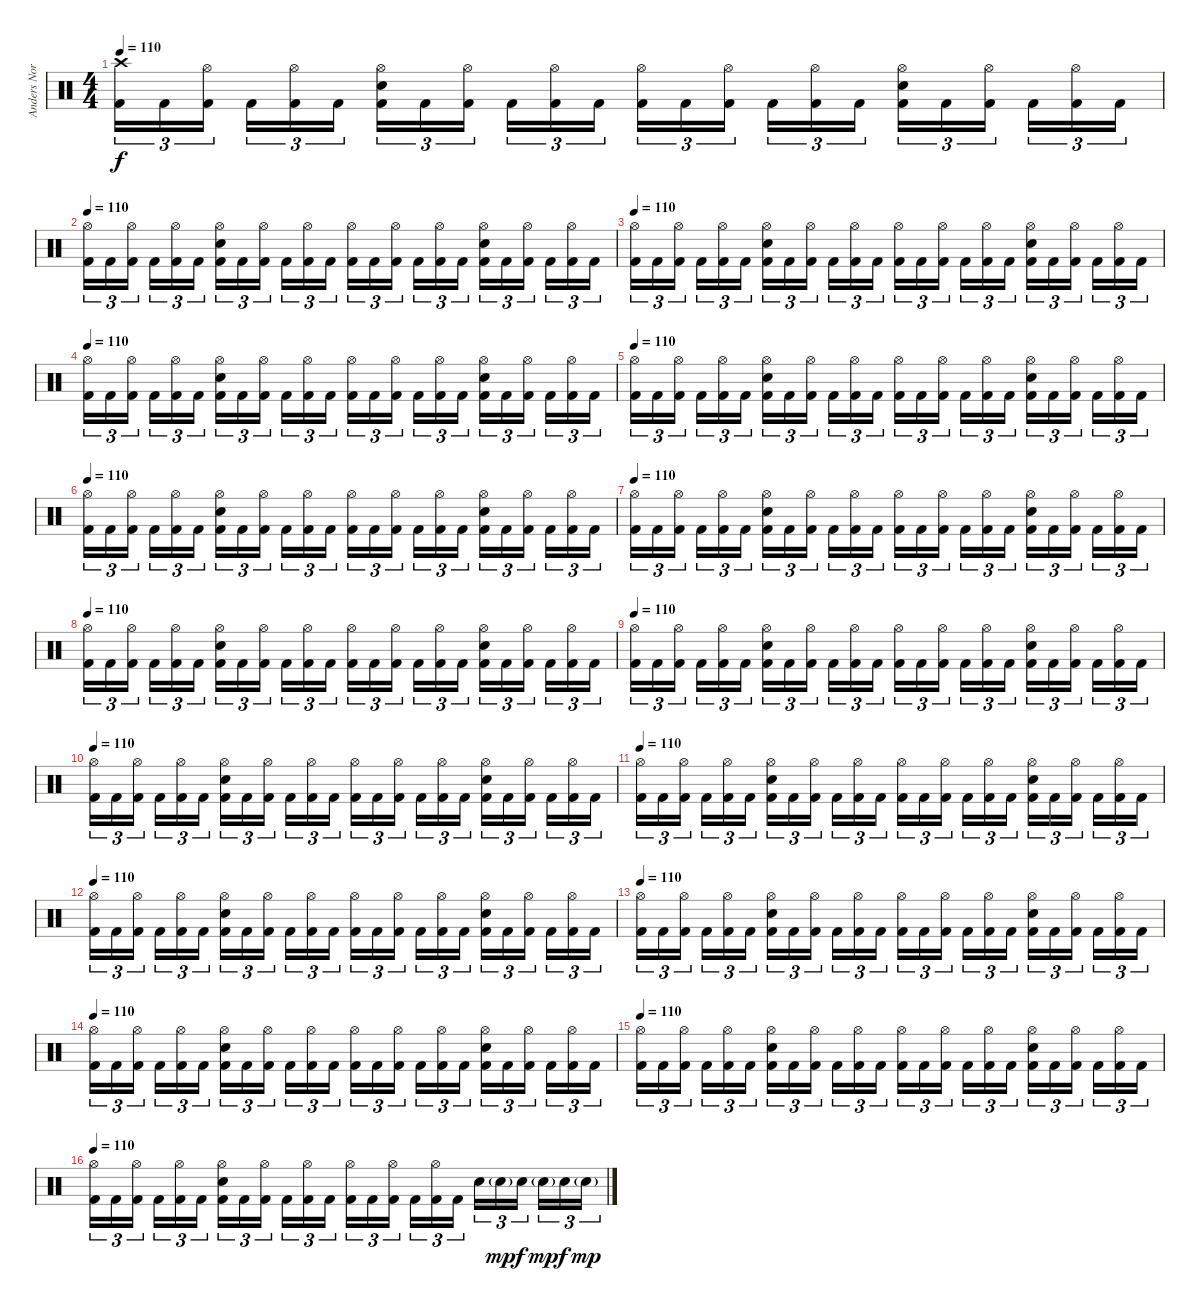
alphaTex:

\track ("Anders Nordin" "Anders Nor") {instrument percussion}
\staff {score}
\articulation defaults
\ts (4 4)
\tempo 110
\clef neutral
\ks c
("Kick (hit) 2" "Crash high (hit)").16{tu (3 2) dy f} "Kick (hit) 2".16{tu (3 2)} ("Kick (hit) 2" "Hi-Hat (open)").16{tu (3 2)} "Kick (hit) 2".16{tu (3 2)} ("Kick (hit) 2" "Hi-Hat (open)").16{tu (3 2)} "Kick (hit) 2".16{tu (3 2)} ("Kick (hit) 2" "Electric Snare (hit)" "Hi-Hat (open)").16{tu (3 2)} "Kick (hit) 2".16{tu (3 2)} ("Kick (hit) 2" "Hi-Hat (open)").16{tu (3 2)} "Kick (hit) 2".16{tu (3 2)} ("Kick (hit) 2" "Hi-Hat (open)").16{tu (3 2)} "Kick (hit) 2".16{tu (3 2)} ("Kick (hit) 2" "Hi-Hat (open)").16{tu (3 2)} "Kick (hit) 2".16{tu (3 2)} ("Kick (hit) 2" "Hi-Hat (open)").16{tu (3 2)} "Kick (hit) 2".16{tu (3 2)} ("Kick (hit) 2" "Hi-Hat (open)").16{tu (3 2)} "Kick (hit) 2".16{tu (3 2)} ("Kick (hit) 2" "Electric Snare (hit)" "Hi-Hat (open)").16{tu (3 2)} "Kick (hit) 2".16{tu (3 2)} ("Kick (hit) 2" "Hi-Hat (open)").16{tu (3 2)} "Kick (hit) 2".16{tu (3 2)} ("Kick (hit) 2" "Hi-Hat (open)").16{tu (3 2)} "Kick (hit) 2".16{tu (3 2)} |
\tempo 110
("Kick (hit) 2" "Hi-Hat (open)").16{tu (3 2)} "Kick (hit) 2".16{tu (3 2)} ("Kick (hit) 2" "Hi-Hat (open)").16{tu (3 2)} "Kick (hit) 2".16{tu (3 2)} ("Kick (hit) 2" "Hi-Hat (open)").16{tu (3 2)} "Kick (hit) 2".16{tu (3 2)} ("Kick (hit) 2" "Electric Snare (hit)" "Hi-Hat (open)").16{tu (3 2)} "Kick (hit) 2".16{tu (3 2)} ("Kick (hit) 2" "Hi-Hat (open)").16{tu (3 2)} "Kick (hit) 2".16{tu (3 2)} ("Kick (hit) 2" "Hi-Hat (open)").16{tu (3 2)} "Kick (hit) 2".16{tu (3 2)} ("Kick (hit) 2" "Hi-Hat (open)").16{tu (3 2)} "Kick (hit) 2".16{tu (3 2)} ("Kick (hit) 2" "Hi-Hat (open)").16{tu (3 2)} "Kick (hit) 2".16{tu (3 2)} ("Kick (hit) 2" "Hi-Hat (open)").16{tu (3 2)} "Kick (hit) 2".16{tu (3 2)} ("Kick (hit) 2" "Electric Snare (hit)" "Hi-Hat (open)").16{tu (3 2)} "Kick (hit) 2".16{tu (3 2)} ("Kick (hit) 2" "Hi-Hat (open)").16{tu (3 2)} "Kick (hit) 2".16{tu (3 2)} ("Kick (hit) 2" "Hi-Hat (open)").16{tu (3 2)} "Kick (hit) 2".16{tu (3 2)} |
\tempo 110
("Kick (hit) 2" "Hi-Hat (open)").16{tu (3 2)} "Kick (hit) 2".16{tu (3 2)} ("Kick (hit) 2" "Hi-Hat (open)").16{tu (3 2)} "Kick (hit) 2".16{tu (3 2)} ("Kick (hit) 2" "Hi-Hat (open)").16{tu (3 2)} "Kick (hit) 2".16{tu (3 2)} ("Kick (hit) 2" "Electric Snare (hit)" "Hi-Hat (open)").16{tu (3 2)} "Kick (hit) 2".16{tu (3 2)} ("Kick (hit) 2" "Hi-Hat (open)").16{tu (3 2)} "Kick (hit) 2".16{tu (3 2)} ("Kick (hit) 2" "Hi-Hat (open)").16{tu (3 2)} "Kick (hit) 2".16{tu (3 2)} ("Kick (hit) 2" "Hi-Hat (open)").16{tu (3 2)} "Kick (hit) 2".16{tu (3 2)} ("Kick (hit) 2" "Hi-Hat (open)").16{tu (3 2)} "Kick (hit) 2".16{tu (3 2)} ("Kick (hit) 2" "Hi-Hat (open)").16{tu (3 2)} "Kick (hit) 2".16{tu (3 2)} ("Kick (hit) 2" "Electric Snare (hit)" "Hi-Hat (open)").16{tu (3 2)} "Kick (hit) 2".16{tu (3 2)} ("Kick (hit) 2" "Hi-Hat (open)").16{tu (3 2)} "Kick (hit) 2".16{tu (3 2)} ("Kick (hit) 2" "Hi-Hat (open)").16{tu (3 2)} "Kick (hit) 2".16{tu (3 2)} |
\tempo 110
("Kick (hit) 2" "Hi-Hat (open)").16{tu (3 2)} "Kick (hit) 2".16{tu (3 2)} ("Kick (hit) 2" "Hi-Hat (open)").16{tu (3 2)} "Kick (hit) 2".16{tu (3 2)} ("Kick (hit) 2" "Hi-Hat (open)").16{tu (3 2)} "Kick (hit) 2".16{tu (3 2)} ("Kick (hit) 2" "Electric Snare (hit)" "Hi-Hat (open)").16{tu (3 2)} "Kick (hit) 2".16{tu (3 2)} ("Kick (hit) 2" "Hi-Hat (open)").16{tu (3 2)} "Kick (hit) 2".16{tu (3 2)} ("Kick (hit) 2" "Hi-Hat (open)").16{tu (3 2)} "Kick (hit) 2".16{tu (3 2)} ("Kick (hit) 2" "Hi-Hat (open)").16{tu (3 2)} "Kick (hit) 2".16{tu (3 2)} ("Kick (hit) 2" "Hi-Hat (open)").16{tu (3 2)} "Kick (hit) 2".16{tu (3 2)} ("Kick (hit) 2" "Hi-Hat (open)").16{tu (3 2)} "Kick (hit) 2".16{tu (3 2)} ("Kick (hit) 2" "Electric Snare (hit)" "Hi-Hat (open)").16{tu (3 2)} "Kick (hit) 2".16{tu (3 2)} ("Kick (hit) 2" "Hi-Hat (open)").16{tu (3 2)} "Kick (hit) 2".16{tu (3 2)} ("Kick (hit) 2" "Hi-Hat (open)").16{tu (3 2)} "Kick (hit) 2".16{tu (3 2)} |
\tempo 110
("Kick (hit) 2" "Hi-Hat (open)").16{tu (3 2)} "Kick (hit) 2".16{tu (3 2)} ("Kick (hit) 2" "Hi-Hat (open)").16{tu (3 2)} "Kick (hit) 2".16{tu (3 2)} ("Kick (hit) 2" "Hi-Hat (open)").16{tu (3 2)} "Kick (hit) 2".16{tu (3 2)} ("Kick (hit) 2" "Electric Snare (hit)" "Hi-Hat (open)").16{tu (3 2)} "Kick (hit) 2".16{tu (3 2)} ("Kick (hit) 2" "Hi-Hat (open)").16{tu (3 2)} "Kick (hit) 2".16{tu (3 2)} ("Kick (hit) 2" "Hi-Hat (open)").16{tu (3 2)} "Kick (hit) 2".16{tu (3 2)} ("Kick (hit) 2" "Hi-Hat (open)").16{tu (3 2)} "Kick (hit) 2".16{tu (3 2)} ("Kick (hit) 2" "Hi-Hat (open)").16{tu (3 2)} "Kick (hit) 2".16{tu (3 2)} ("Kick (hit) 2" "Hi-Hat (open)").16{tu (3 2)} "Kick (hit) 2".16{tu (3 2)} ("Kick (hit) 2" "Electric Snare (hit)" "Hi-Hat (open)").16{tu (3 2)} "Kick (hit) 2".16{tu (3 2)} ("Kick (hit) 2" "Hi-Hat (open)").16{tu (3 2)} "Kick (hit) 2".16{tu (3 2)} ("Kick (hit) 2" "Hi-Hat (open)").16{tu (3 2)} "Kick (hit) 2".16{tu (3 2)} |
\tempo 110
("Kick (hit) 2" "Hi-Hat (open)").16{tu (3 2)} "Kick (hit) 2".16{tu (3 2)} ("Kick (hit) 2" "Hi-Hat (open)").16{tu (3 2)} "Kick (hit) 2".16{tu (3 2)} ("Kick (hit) 2" "Hi-Hat (open)").16{tu (3 2)} "Kick (hit) 2".16{tu (3 2)} ("Kick (hit) 2" "Electric Snare (hit)" "Hi-Hat (open)").16{tu (3 2)} "Kick (hit) 2".16{tu (3 2)} ("Kick (hit) 2" "Hi-Hat (open)").16{tu (3 2)} "Kick (hit) 2".16{tu (3 2)} ("Kick (hit) 2" "Hi-Hat (open)").16{tu (3 2)} "Kick (hit) 2".16{tu (3 2)} ("Kick (hit) 2" "Hi-Hat (open)").16{tu (3 2)} "Kick (hit) 2".16{tu (3 2)} ("Kick (hit) 2" "Hi-Hat (open)").16{tu (3 2)} "Kick (hit) 2".16{tu (3 2)} ("Kick (hit) 2" "Hi-Hat (open)").16{tu (3 2)} "Kick (hit) 2".16{tu (3 2)} ("Kick (hit) 2" "Electric Snare (hit)" "Hi-Hat (open)").16{tu (3 2)} "Kick (hit) 2".16{tu (3 2)} ("Kick (hit) 2" "Hi-Hat (open)").16{tu (3 2)} "Kick (hit) 2".16{tu (3 2)} ("Kick (hit) 2" "Hi-Hat (open)").16{tu (3 2)} "Kick (hit) 2".16{tu (3 2)} |
\tempo 110
("Kick (hit) 2" "Hi-Hat (open)").16{tu (3 2)} "Kick (hit) 2".16{tu (3 2)} ("Kick (hit) 2" "Hi-Hat (open)").16{tu (3 2)} "Kick (hit) 2".16{tu (3 2)} ("Kick (hit) 2" "Hi-Hat (open)").16{tu (3 2)} "Kick (hit) 2".16{tu (3 2)} ("Kick (hit) 2" "Electric Snare (hit)" "Hi-Hat (open)").16{tu (3 2)} "Kick (hit) 2".16{tu (3 2)} ("Kick (hit) 2" "Hi-Hat (open)").16{tu (3 2)} "Kick (hit) 2".16{tu (3 2)} ("Kick (hit) 2" "Hi-Hat (open)").16{tu (3 2)} "Kick (hit) 2".16{tu (3 2)} ("Kick (hit) 2" "Hi-Hat (open)").16{tu (3 2)} "Kick (hit) 2".16{tu (3 2)} ("Kick (hit) 2" "Hi-Hat (open)").16{tu (3 2)} "Kick (hit) 2".16{tu (3 2)} ("Kick (hit) 2" "Hi-Hat (open)").16{tu (3 2)} "Kick (hit) 2".16{tu (3 2)} ("Kick (hit) 2" "Electric Snare (hit)" "Hi-Hat (open)").16{tu (3 2)} "Kick (hit) 2".16{tu (3 2)} ("Kick (hit) 2" "Hi-Hat (open)").16{tu (3 2)} "Kick (hit) 2".16{tu (3 2)} ("Kick (hit) 2" "Hi-Hat (open)").16{tu (3 2)} "Kick (hit) 2".16{tu (3 2)} |
\tempo 110
("Kick (hit) 2" "Hi-Hat (open)").16{tu (3 2)} "Kick (hit) 2".16{tu (3 2)} ("Kick (hit) 2" "Hi-Hat (open)").16{tu (3 2)} "Kick (hit) 2".16{tu (3 2)} ("Kick (hit) 2" "Hi-Hat (open)").16{tu (3 2)} "Kick (hit) 2".16{tu (3 2)} ("Kick (hit) 2" "Electric Snare (hit)" "Hi-Hat (open)").16{tu (3 2)} "Kick (hit) 2".16{tu (3 2)} ("Kick (hit) 2" "Hi-Hat (open)").16{tu (3 2)} "Kick (hit) 2".16{tu (3 2)} ("Kick (hit) 2" "Hi-Hat (open)").16{tu (3 2)} "Kick (hit) 2".16{tu (3 2)} ("Kick (hit) 2" "Hi-Hat (open)").16{tu (3 2)} "Kick (hit) 2".16{tu (3 2)} ("Kick (hit) 2" "Hi-Hat (open)").16{tu (3 2)} "Kick (hit) 2".16{tu (3 2)} ("Kick (hit) 2" "Hi-Hat (open)").16{tu (3 2)} "Kick (hit) 2".16{tu (3 2)} ("Kick (hit) 2" "Electric Snare (hit)" "Hi-Hat (open)").16{tu (3 2)} "Kick (hit) 2".16{tu (3 2)} ("Kick (hit) 2" "Hi-Hat (open)").16{tu (3 2)} "Kick (hit) 2".16{tu (3 2)} ("Kick (hit) 2" "Hi-Hat (open)").16{tu (3 2)} "Kick (hit) 2".16{tu (3 2)} |
\tempo 110
("Kick (hit) 2" "Hi-Hat (open)").16{tu (3 2)} "Kick (hit) 2".16{tu (3 2)} ("Kick (hit) 2" "Hi-Hat (open)").16{tu (3 2)} "Kick (hit) 2".16{tu (3 2)} ("Kick (hit) 2" "Hi-Hat (open)").16{tu (3 2)} "Kick (hit) 2".16{tu (3 2)} ("Kick (hit) 2" "Electric Snare (hit)" "Hi-Hat (open)").16{tu (3 2)} "Kick (hit) 2".16{tu (3 2)} ("Kick (hit) 2" "Hi-Hat (open)").16{tu (3 2)} "Kick (hit) 2".16{tu (3 2)} ("Kick (hit) 2" "Hi-Hat (open)").16{tu (3 2)} "Kick (hit) 2".16{tu (3 2)} ("Kick (hit) 2" "Hi-Hat (open)").16{tu (3 2)} "Kick (hit) 2".16{tu (3 2)} ("Kick (hit) 2" "Hi-Hat (open)").16{tu (3 2)} "Kick (hit) 2".16{tu (3 2)} ("Kick (hit) 2" "Hi-Hat (open)").16{tu (3 2)} "Kick (hit) 2".16{tu (3 2)} ("Kick (hit) 2" "Electric Snare (hit)" "Hi-Hat (open)").16{tu (3 2)} "Kick (hit) 2".16{tu (3 2)} ("Kick (hit) 2" "Hi-Hat (open)").16{tu (3 2)} "Kick (hit) 2".16{tu (3 2)} ("Kick (hit) 2" "Hi-Hat (open)").16{tu (3 2)} "Kick (hit) 2".16{tu (3 2)} |
\tempo 110
("Kick (hit) 2" "Hi-Hat (open)").16{tu (3 2)} "Kick (hit) 2".16{tu (3 2)} ("Kick (hit) 2" "Hi-Hat (open)").16{tu (3 2)} "Kick (hit) 2".16{tu (3 2)} ("Kick (hit) 2" "Hi-Hat (open)").16{tu (3 2)} "Kick (hit) 2".16{tu (3 2)} ("Kick (hit) 2" "Electric Snare (hit)" "Hi-Hat (open)").16{tu (3 2)} "Kick (hit) 2".16{tu (3 2)} ("Kick (hit) 2" "Hi-Hat (open)").16{tu (3 2)} "Kick (hit) 2".16{tu (3 2)} ("Kick (hit) 2" "Hi-Hat (open)").16{tu (3 2)} "Kick (hit) 2".16{tu (3 2)} ("Kick (hit) 2" "Hi-Hat (open)").16{tu (3 2)} "Kick (hit) 2".16{tu (3 2)} ("Kick (hit) 2" "Hi-Hat (open)").16{tu (3 2)} "Kick (hit) 2".16{tu (3 2)} ("Kick (hit) 2" "Hi-Hat (open)").16{tu (3 2)} "Kick (hit) 2".16{tu (3 2)} ("Kick (hit) 2" "Electric Snare (hit)" "Hi-Hat (open)").16{tu (3 2)} "Kick (hit) 2".16{tu (3 2)} ("Kick (hit) 2" "Hi-Hat (open)").16{tu (3 2)} "Kick (hit) 2".16{tu (3 2)} ("Kick (hit) 2" "Hi-Hat (open)").16{tu (3 2)} "Kick (hit) 2".16{tu (3 2)} |
\tempo 110
("Kick (hit) 2" "Hi-Hat (open)").16{tu (3 2)} "Kick (hit) 2".16{tu (3 2)} ("Kick (hit) 2" "Hi-Hat (open)").16{tu (3 2)} "Kick (hit) 2".16{tu (3 2)} ("Kick (hit) 2" "Hi-Hat (open)").16{tu (3 2)} "Kick (hit) 2".16{tu (3 2)} ("Kick (hit) 2" "Electric Snare (hit)" "Hi-Hat (open)").16{tu (3 2)} "Kick (hit) 2".16{tu (3 2)} ("Kick (hit) 2" "Hi-Hat (open)").16{tu (3 2)} "Kick (hit) 2".16{tu (3 2)} ("Kick (hit) 2" "Hi-Hat (open)").16{tu (3 2)} "Kick (hit) 2".16{tu (3 2)} ("Kick (hit) 2" "Hi-Hat (open)").16{tu (3 2)} "Kick (hit) 2".16{tu (3 2)} ("Kick (hit) 2" "Hi-Hat (open)").16{tu (3 2)} "Kick (hit) 2".16{tu (3 2)} ("Kick (hit) 2" "Hi-Hat (open)").16{tu (3 2)} "Kick (hit) 2".16{tu (3 2)} ("Kick (hit) 2" "Electric Snare (hit)" "Hi-Hat (open)").16{tu (3 2)} "Kick (hit) 2".16{tu (3 2)} ("Kick (hit) 2" "Hi-Hat (open)").16{tu (3 2)} "Kick (hit) 2".16{tu (3 2)} ("Kick (hit) 2" "Hi-Hat (open)").16{tu (3 2)} "Kick (hit) 2".16{tu (3 2)} |
\tempo 110
("Kick (hit) 2" "Hi-Hat (open)").16{tu (3 2)} "Kick (hit) 2".16{tu (3 2)} ("Kick (hit) 2" "Hi-Hat (open)").16{tu (3 2)} "Kick (hit) 2".16{tu (3 2)} ("Kick (hit) 2" "Hi-Hat (open)").16{tu (3 2)} "Kick (hit) 2".16{tu (3 2)} ("Kick (hit) 2" "Electric Snare (hit)" "Hi-Hat (open)").16{tu (3 2)} "Kick (hit) 2".16{tu (3 2)} ("Kick (hit) 2" "Hi-Hat (open)").16{tu (3 2)} "Kick (hit) 2".16{tu (3 2)} ("Kick (hit) 2" "Hi-Hat (open)").16{tu (3 2)} "Kick (hit) 2".16{tu (3 2)} ("Kick (hit) 2" "Hi-Hat (open)").16{tu (3 2)} "Kick (hit) 2".16{tu (3 2)} ("Kick (hit) 2" "Hi-Hat (open)").16{tu (3 2)} "Kick (hit) 2".16{tu (3 2)} ("Kick (hit) 2" "Hi-Hat (open)").16{tu (3 2)} "Kick (hit) 2".16{tu (3 2)} ("Kick (hit) 2" "Electric Snare (hit)" "Hi-Hat (open)").16{tu (3 2)} "Kick (hit) 2".16{tu (3 2)} ("Kick (hit) 2" "Hi-Hat (open)").16{tu (3 2)} "Kick (hit) 2".16{tu (3 2)} ("Kick (hit) 2" "Hi-Hat (open)").16{tu (3 2)} "Kick (hit) 2".16{tu (3 2)} |
\tempo 110
("Kick (hit) 2" "Hi-Hat (open)").16{tu (3 2)} "Kick (hit) 2".16{tu (3 2)} ("Kick (hit) 2" "Hi-Hat (open)").16{tu (3 2)} "Kick (hit) 2".16{tu (3 2)} ("Kick (hit) 2" "Hi-Hat (open)").16{tu (3 2)} "Kick (hit) 2".16{tu (3 2)} ("Kick (hit) 2" "Electric Snare (hit)" "Hi-Hat (open)").16{tu (3 2)} "Kick (hit) 2".16{tu (3 2)} ("Kick (hit) 2" "Hi-Hat (open)").16{tu (3 2)} "Kick (hit) 2".16{tu (3 2)} ("Kick (hit) 2" "Hi-Hat (open)").16{tu (3 2)} "Kick (hit) 2".16{tu (3 2)} ("Kick (hit) 2" "Hi-Hat (open)").16{tu (3 2)} "Kick (hit) 2".16{tu (3 2)} ("Kick (hit) 2" "Hi-Hat (open)").16{tu (3 2)} "Kick (hit) 2".16{tu (3 2)} ("Kick (hit) 2" "Hi-Hat (open)").16{tu (3 2)} "Kick (hit) 2".16{tu (3 2)} ("Kick (hit) 2" "Electric Snare (hit)" "Hi-Hat (open)").16{tu (3 2)} "Kick (hit) 2".16{tu (3 2)} ("Kick (hit) 2" "Hi-Hat (open)").16{tu (3 2)} "Kick (hit) 2".16{tu (3 2)} ("Kick (hit) 2" "Hi-Hat (open)").16{tu (3 2)} "Kick (hit) 2".16{tu (3 2)} |
\tempo 110
("Kick (hit) 2" "Hi-Hat (open)").16{tu (3 2)} "Kick (hit) 2".16{tu (3 2)} ("Kick (hit) 2" "Hi-Hat (open)").16{tu (3 2)} "Kick (hit) 2".16{tu (3 2)} ("Kick (hit) 2" "Hi-Hat (open)").16{tu (3 2)} "Kick (hit) 2".16{tu (3 2)} ("Kick (hit) 2" "Electric Snare (hit)" "Hi-Hat (open)").16{tu (3 2)} "Kick (hit) 2".16{tu (3 2)} ("Kick (hit) 2" "Hi-Hat (open)").16{tu (3 2)} "Kick (hit) 2".16{tu (3 2)} ("Kick (hit) 2" "Hi-Hat (open)").16{tu (3 2)} "Kick (hit) 2".16{tu (3 2)} ("Kick (hit) 2" "Hi-Hat (open)").16{tu (3 2)} "Kick (hit) 2".16{tu (3 2)} ("Kick (hit) 2" "Hi-Hat (open)").16{tu (3 2)} "Kick (hit) 2".16{tu (3 2)} ("Kick (hit) 2" "Hi-Hat (open)").16{tu (3 2)} "Kick (hit) 2".16{tu (3 2)} ("Kick (hit) 2" "Electric Snare (hit)" "Hi-Hat (open)").16{tu (3 2)} "Kick (hit) 2".16{tu (3 2)} ("Kick (hit) 2" "Hi-Hat (open)").16{tu (3 2)} "Kick (hit) 2".16{tu (3 2)} ("Kick (hit) 2" "Hi-Hat (open)").16{tu (3 2)} "Kick (hit) 2".16{tu (3 2)} |
\tempo 110
("Kick (hit) 2" "Hi-Hat (open)").16{tu (3 2)} "Kick (hit) 2".16{tu (3 2)} ("Kick (hit) 2" "Hi-Hat (open)").16{tu (3 2)} "Kick (hit) 2".16{tu (3 2)} ("Kick (hit) 2" "Hi-Hat (open)").16{tu (3 2)} "Kick (hit) 2".16{tu (3 2)} ("Kick (hit) 2" "Electric Snare (hit)" "Hi-Hat (open)").16{tu (3 2)} "Kick (hit) 2".16{tu (3 2)} ("Kick (hit) 2" "Hi-Hat (open)").16{tu (3 2)} "Kick (hit) 2".16{tu (3 2)} ("Kick (hit) 2" "Hi-Hat (open)").16{tu (3 2)} "Kick (hit) 2".16{tu (3 2)} ("Kick (hit) 2" "Hi-Hat (open)").16{tu (3 2)} "Kick (hit) 2".16{tu (3 2)} ("Kick (hit) 2" "Hi-Hat (open)").16{tu (3 2)} "Kick (hit) 2".16{tu (3 2)} ("Kick (hit) 2" "Hi-Hat (open)").16{tu (3 2)} "Kick (hit) 2".16{tu (3 2)} ("Kick (hit) 2" "Electric Snare (hit)" "Hi-Hat (open)").16{tu (3 2)} "Kick (hit) 2".16{tu (3 2)} ("Kick (hit) 2" "Hi-Hat (open)").16{tu (3 2)} "Kick (hit) 2".16{tu (3 2)} ("Kick (hit) 2" "Hi-Hat (open)").16{tu (3 2)} "Kick (hit) 2".16{tu (3 2)} |
\tempo 110
("Kick (hit) 2" "Hi-Hat (open)").16{tu (3 2)} "Kick (hit) 2".16{tu (3 2)} ("Kick (hit) 2" "Hi-Hat (open)").16{tu (3 2)} "Kick (hit) 2".16{tu (3 2)} ("Kick (hit) 2" "Hi-Hat (open)").16{tu (3 2)} "Kick (hit) 2".16{tu (3 2)} ("Kick (hit) 2" "Electric Snare (hit)" "Hi-Hat (open)").16{tu (3 2)} "Kick (hit) 2".16{tu (3 2)} ("Kick (hit) 2" "Hi-Hat (open)").16{tu (3 2)} "Kick (hit) 2".16{tu (3 2)} ("Kick (hit) 2" "Hi-Hat (open)").16{tu (3 2)} "Kick (hit) 2".16{tu (3 2)} ("Kick (hit) 2" "Hi-Hat (open)").16{tu (3 2)} "Kick (hit) 2".16{tu (3 2)} ("Kick (hit) 2" "Hi-Hat (open)").16{tu (3 2)} "Kick (hit) 2".16{tu (3 2)} ("Kick (hit) 2" "Hi-Hat (open)").16{tu (3 2)} "Kick (hit) 2".16{tu (3 2)} "Electric Snare (hit)".16{tu (3 2)} "Electric Snare (hit)"{g}.16{tu (3 2) dy mp} "Electric Snare (hit)".16{tu (3 2) dy f} "Electric Snare (hit)"{g}.16{tu (3 2) dy mp} "Electric Snare (hit)".16{tu (3 2) dy f} "Electric Snare (hit)"{g}.16{tu (3 2) dy mp}
